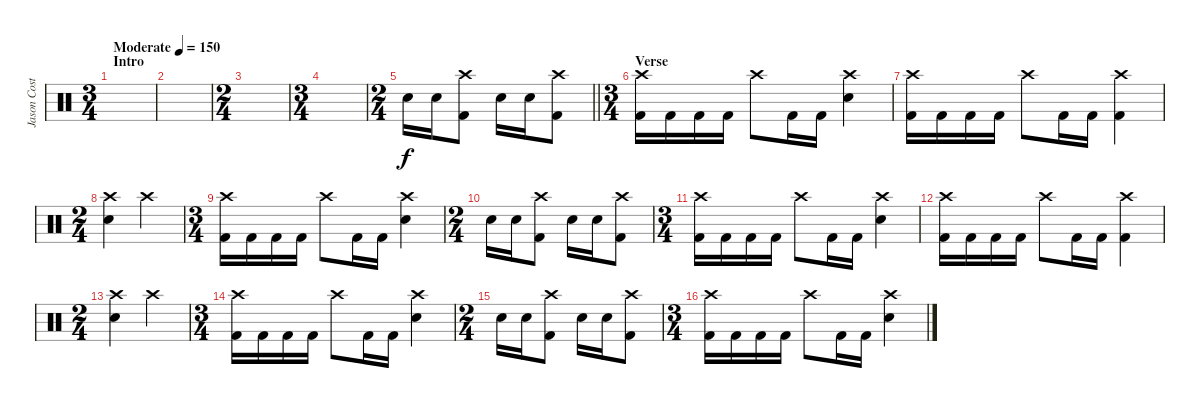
\track ("Jason Costa" "Jason Cost") {instrument percussion}
\staff {score}
\articulation defaults
\ts (3 4)
\section ("" "Intro")
\tempo (150 "Moderate")
\clef neutral
\ks c
|
|
\ts (2 4)
|
\ts (3 4)
|
\ts (2 4)
\barLineRight lightlight "Electric Snare (hit)".16 "Electric Snare (hit)".16
("Crash high (hit)" "Kick (hit) 2").8 "Electric Snare (hit)".16 "Electric Snare (hit)".16 ("Crash high (hit)" "Kick (hit) 2").8 |
\ts (3 4)
\section ("" "Verse")
("Crash high (hit)" "Kick (hit) 2").16 "Kick (hit) 2".16 "Kick (hit) 2".16 "Kick (hit) 2".16 "Crash high (hit)".8 "Kick (hit) 2".16 "Kick (hit) 2".16 ("Crash high (hit)" "Electric Snare (hit)").4 |
("Crash high (hit)" "Kick (hit) 2").16 "Kick (hit) 2".16 "Kick (hit) 2".16 "Kick (hit) 2".16 "Crash high (hit)".8 "Kick (hit) 2".16 "Kick (hit) 2".16 ("Crash high (hit)" "Kick (hit) 2").4 |
\ts (2 4)
("Crash high (hit)" "Electric Snare (hit)").4 "Crash high (hit)".4 |
\ts (3 4)
("Crash high (hit)" "Kick (hit) 2").16 "Kick (hit) 2".16 "Kick (hit) 2".16 "Kick (hit) 2".16 "Crash high (hit)".8 "Kick (hit) 2".16 "Kick (hit) 2".16 ("Crash high (hit)" "Electric Snare (hit)").4 |
\ts (2 4)
"Electric Snare (hit)".16 "Electric Snare (hit)".16 ("Crash high (hit)" "Kick (hit) 2").8 "Electric Snare (hit)".16 "Electric Snare (hit)".16 ("Crash high (hit)" "Kick (hit) 2").8 |
\ts (3 4)
("Crash high (hit)" "Kick (hit) 2").16 "Kick (hit) 2".16 "Kick (hit) 2".16 "Kick (hit) 2".16 "Crash high (hit)".8 "Kick (hit) 2".16 "Kick (hit) 2".16 ("Crash high (hit)" "Electric Snare (hit)").4 |
("Crash high (hit)" "Kick (hit) 2").16 "Kick (hit) 2".16 "Kick (hit) 2".16 "Kick (hit) 2".16 "Crash high (hit)".8 "Kick (hit) 2".16 "Kick (hit) 2".16 ("Crash high (hit)" "Kick (hit) 2").4 |
\ts (2 4)
("Crash high (hit)" "Electric Snare (hit)").4 "Crash high (hit)".4 |
\ts (3 4)
("Crash high (hit)" "Kick (hit) 2").16 "Kick (hit) 2".16 "Kick (hit) 2".16 "Kick (hit) 2".16 "Crash high (hit)".8 "Kick (hit) 2".16 "Kick (hit) 2".16 ("Crash high (hit)" "Electric Snare (hit)").4 |
\ts (2 4)
"Electric Snare (hit)".16 "Electric Snare (hit)".16 ("Crash high (hit)" "Kick (hit) 2").8 "Electric Snare (hit)".16 "Electric Snare (hit)".16 ("Crash high (hit)" "Kick (hit) 2").8 |
\ts (3 4)
("Crash high (hit)" "Kick (hit) 2").16 "Kick (hit) 2".16 "Kick (hit) 2".16 "Kick (hit) 2".16 "Crash high (hit)".8 "Kick (hit) 2".16 "Kick (hit) 2".16 ("Crash high (hit)" "Electric Snare (hit)").4
